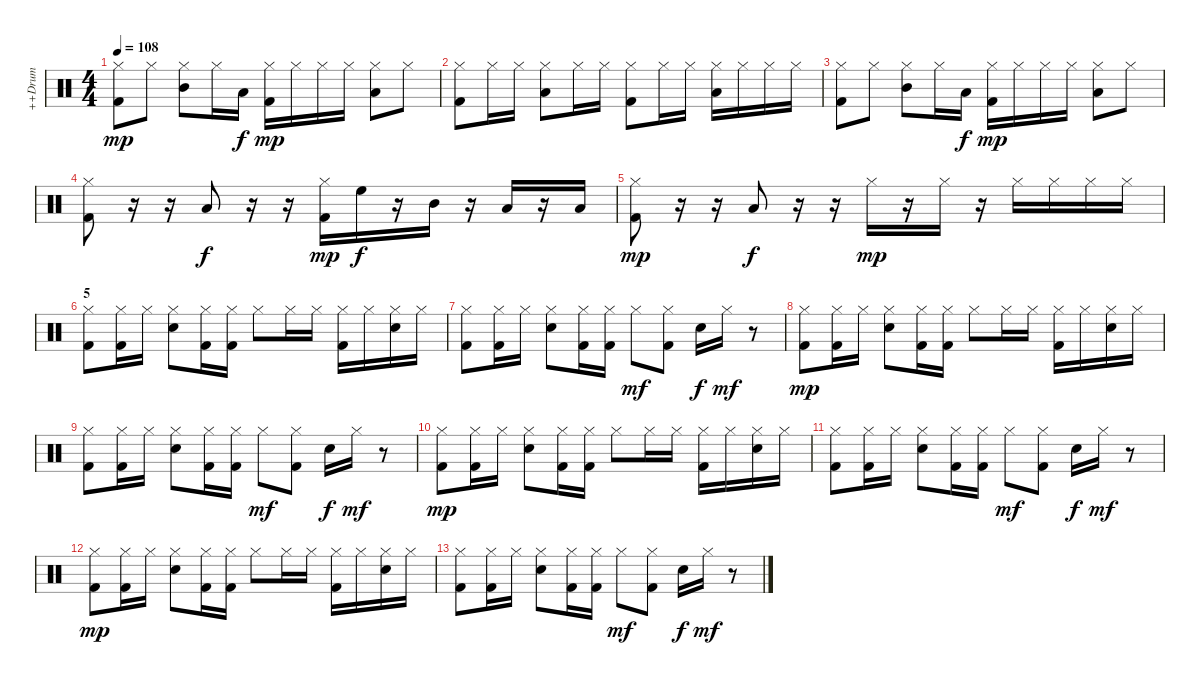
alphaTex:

\track ("++Drum" "++Drum") {instrument percussion}
\staff {score}
\articulation defaults
\ts (4 4)
\tempo 108
\clef neutral
\ks c
("Hi-Hat (closed)" "Kick (hit) 2").8{dy mp} "Hi-Hat (closed)".8 ("Hi-Hat (closed)" "Mid Tom (hit)").8 "Hi-Hat (closed)".16 "Low Tom (hit)".16{dy f} ("Hi-Hat (closed)" "Kick (hit) 2").16{dy mp} "Hi-Hat (closed)".16 "Hi-Hat (closed)".16 "Hi-Hat (closed)".16 ("Hi-Hat (closed)" "Low Tom (hit)").8 "Hi-Hat (closed)".8 |
("Hi-Hat (closed)" "Kick (hit) 2").8 "Hi-Hat (closed)".16 "Hi-Hat (closed)".16 ("Hi-Hat (closed)" "Low Tom (hit)").8 "Hi-Hat (closed)".16 "Hi-Hat (closed)".16 ("Hi-Hat (closed)" "Kick (hit) 2").8 "Hi-Hat (closed)".16 "Hi-Hat (closed)".16 ("Hi-Hat (closed)" "Low Tom (hit)").16 "Hi-Hat (closed)".16 "Hi-Hat (closed)".16 "Hi-Hat (closed)".16 |
("Hi-Hat (closed)" "Kick (hit) 2").8 "Hi-Hat (closed)".8 ("Hi-Hat (closed)" "Mid Tom (hit)").8 "Hi-Hat (closed)".16 "Low Tom (hit)".16{dy f} ("Hi-Hat (closed)" "Kick (hit) 2").16{dy mp} "Hi-Hat (closed)".16 "Hi-Hat (closed)".16 "Hi-Hat (closed)".16 ("Hi-Hat (closed)" "Low Tom (hit)").8 "Hi-Hat (closed)".8 |
("Hi-Hat (closed)" "Kick (hit) 2").8 r.16 r.16 "Low Tom (hit)".8{dy f} r.16 r.16 ("Hi-Hat (closed)" "Kick (hit) 2").16{dy mp} "High Floor Tom (hit)".16{dy f} r.16 "Mid Tom (hit)".16 r.16 "Low Tom (hit)".16 r.16 "Low Floor Tom (hit)".16 |
("Hi-Hat (closed)" "Kick (hit) 2").8{dy mp} r.16 r.16 "Low Tom (hit)".8{dy f} r.16 r.16 "Hi-Hat (closed)".16{dy mp} r.16 "Hi-Hat (closed)".16 r.16 "Hi-Hat (closed)".16 "Hi-Hat (closed)".16 "Hi-Hat (closed)".16 "Hi-Hat (closed)".16 |
\section ("" "5")
("Hi-Hat (closed)" "Kick (hit) 2").8 ("Hi-Hat (closed)" "Kick (hit) 2").16 "Hi-Hat (closed)".16 ("Hi-Hat (closed)" "Electric Snare (hit)").8 ("Hi-Hat (closed)" "Kick (hit) 2").16 ("Hi-Hat (closed)" "Kick (hit) 2").16 "Hi-Hat (closed)".8 "Hi-Hat (closed)".16 "Hi-Hat (closed)".16 ("Hi-Hat (closed)" "Kick (hit) 2").16 "Hi-Hat (closed)".16 ("Hi-Hat (closed)" "Electric Snare (hit)").16 "Hi-Hat (closed)".16 |
("Hi-Hat (closed)" "Kick (hit) 2").8 ("Hi-Hat (closed)" "Kick (hit) 2").16 "Hi-Hat (closed)".16 ("Hi-Hat (closed)" "Electric Snare (hit)").8 ("Hi-Hat (closed)" "Kick (hit) 2").16 ("Hi-Hat (closed)" "Kick (hit) 2").16 "Hi-Hat (closed)".8{dy mf} ("Hi-Hat (closed)" "Kick (hit) 2").8 "Electric Snare (hit)".16{dy f} "Hi-Hat (closed)".16{dy mf} r.8 |
("Hi-Hat (closed)" "Kick (hit) 2").8{dy mp} ("Hi-Hat (closed)" "Kick (hit) 2").16 "Hi-Hat (closed)".16 ("Hi-Hat (closed)" "Electric Snare (hit)").8 ("Hi-Hat (closed)" "Kick (hit) 2").16 ("Hi-Hat (closed)" "Kick (hit) 2").16 "Hi-Hat (closed)".8 "Hi-Hat (closed)".16 "Hi-Hat (closed)".16 ("Hi-Hat (closed)" "Kick (hit) 2").16 "Hi-Hat (closed)".16 ("Hi-Hat (closed)" "Electric Snare (hit)").16 "Hi-Hat (closed)".16 |
("Hi-Hat (closed)" "Kick (hit) 2").8 ("Hi-Hat (closed)" "Kick (hit) 2").16 "Hi-Hat (closed)".16 ("Hi-Hat (closed)" "Electric Snare (hit)").8 ("Hi-Hat (closed)" "Kick (hit) 2").16 ("Hi-Hat (closed)" "Kick (hit) 2").16 "Hi-Hat (closed)".8{dy mf} ("Hi-Hat (closed)" "Kick (hit) 2").8 "Electric Snare (hit)".16{dy f} "Hi-Hat (closed)".16{dy mf} r.8 |
("Hi-Hat (closed)" "Kick (hit) 2").8{dy mp} ("Hi-Hat (closed)" "Kick (hit) 2").16 "Hi-Hat (closed)".16 ("Hi-Hat (closed)" "Electric Snare (hit)").8 ("Hi-Hat (closed)" "Kick (hit) 2").16 ("Hi-Hat (closed)" "Kick (hit) 2").16 "Hi-Hat (closed)".8 "Hi-Hat (closed)".16 "Hi-Hat (closed)".16 ("Hi-Hat (closed)" "Kick (hit) 2").16 "Hi-Hat (closed)".16 ("Hi-Hat (closed)" "Electric Snare (hit)").16 "Hi-Hat (closed)".16 |
("Hi-Hat (closed)" "Kick (hit) 2").8 ("Hi-Hat (closed)" "Kick (hit) 2").16 "Hi-Hat (closed)".16 ("Hi-Hat (closed)" "Electric Snare (hit)").8 ("Hi-Hat (closed)" "Kick (hit) 2").16 ("Hi-Hat (closed)" "Kick (hit) 2").16 "Hi-Hat (closed)".8{dy mf} ("Hi-Hat (closed)" "Kick (hit) 2").8 "Electric Snare (hit)".16{dy f} "Hi-Hat (closed)".16{dy mf} r.8 |
("Hi-Hat (closed)" "Kick (hit) 2").8{dy mp} ("Hi-Hat (closed)" "Kick (hit) 2").16 "Hi-Hat (closed)".16 ("Hi-Hat (closed)" "Electric Snare (hit)").8 ("Hi-Hat (closed)" "Kick (hit) 2").16 ("Hi-Hat (closed)" "Kick (hit) 2").16 "Hi-Hat (closed)".8 "Hi-Hat (closed)".16 "Hi-Hat (closed)".16 ("Hi-Hat (closed)" "Kick (hit) 2").16 "Hi-Hat (closed)".16 ("Hi-Hat (closed)" "Electric Snare (hit)").16 "Hi-Hat (closed)".16 |
("Hi-Hat (closed)" "Kick (hit) 2").8 ("Hi-Hat (closed)" "Kick (hit) 2").16 "Hi-Hat (closed)".16 ("Hi-Hat (closed)" "Electric Snare (hit)").8 ("Hi-Hat (closed)" "Kick (hit) 2").16 ("Hi-Hat (closed)" "Kick (hit) 2").16 "Hi-Hat (closed)".8{dy mf} ("Hi-Hat (closed)" "Kick (hit) 2").8 "Electric Snare (hit)".16{dy f} "Hi-Hat (closed)".16{dy mf} r.8
